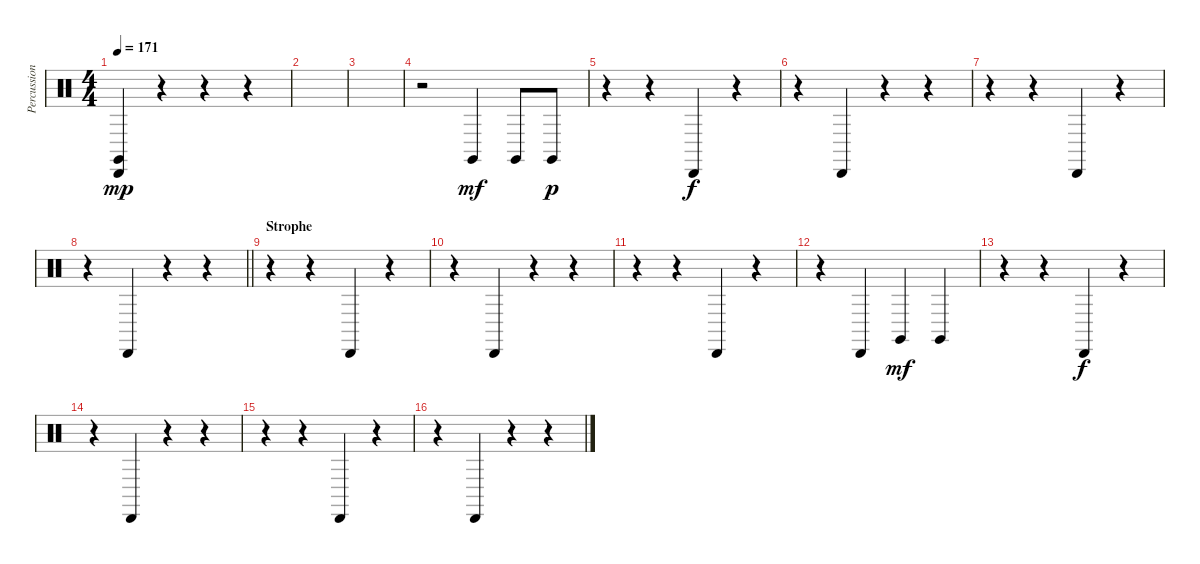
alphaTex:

\track ("Percussion" "Percussion") {instrument percussion}
\staff {score}
\articulation defaults
\ts (4 4)
\tempo 171
\clef neutral
\ks c
("Cabasa (hit)" "Claves (hit)").4{dy mp} r.4 r.4 r.4 |
|
|
r.2 "Claves (hit)".4{dy mf} "Claves (hit)".8 "Claves (hit)".8{dy p} |
r.4 r.4 "Cabasa (hit)".4{dy f} r.4 |
r.4 "Cabasa (hit)".4 r.4 r.4 |
r.4 r.4 "Cabasa (hit)".4 r.4 |
\barLineRight lightlight
r.4 "Cabasa (hit)".4 r.4 r.4 |
\section ("" "Strophe")
r.4 r.4 "Cabasa (hit)".4 r.4 |
r.4 "Cabasa (hit)".4 r.4 r.4 |
r.4 r.4 "Cabasa (hit)".4 r.4 |
r.4 "Cabasa (hit)".4 "Claves (hit)".4{dy mf} "Claves (hit)".4 |
r.4 r.4 "Cabasa (hit)".4{dy f} r.4 |
r.4 "Cabasa (hit)".4 r.4 r.4 |
r.4 r.4 "Cabasa (hit)".4 r.4 |
r.4 "Cabasa (hit)".4 r.4 r.4
